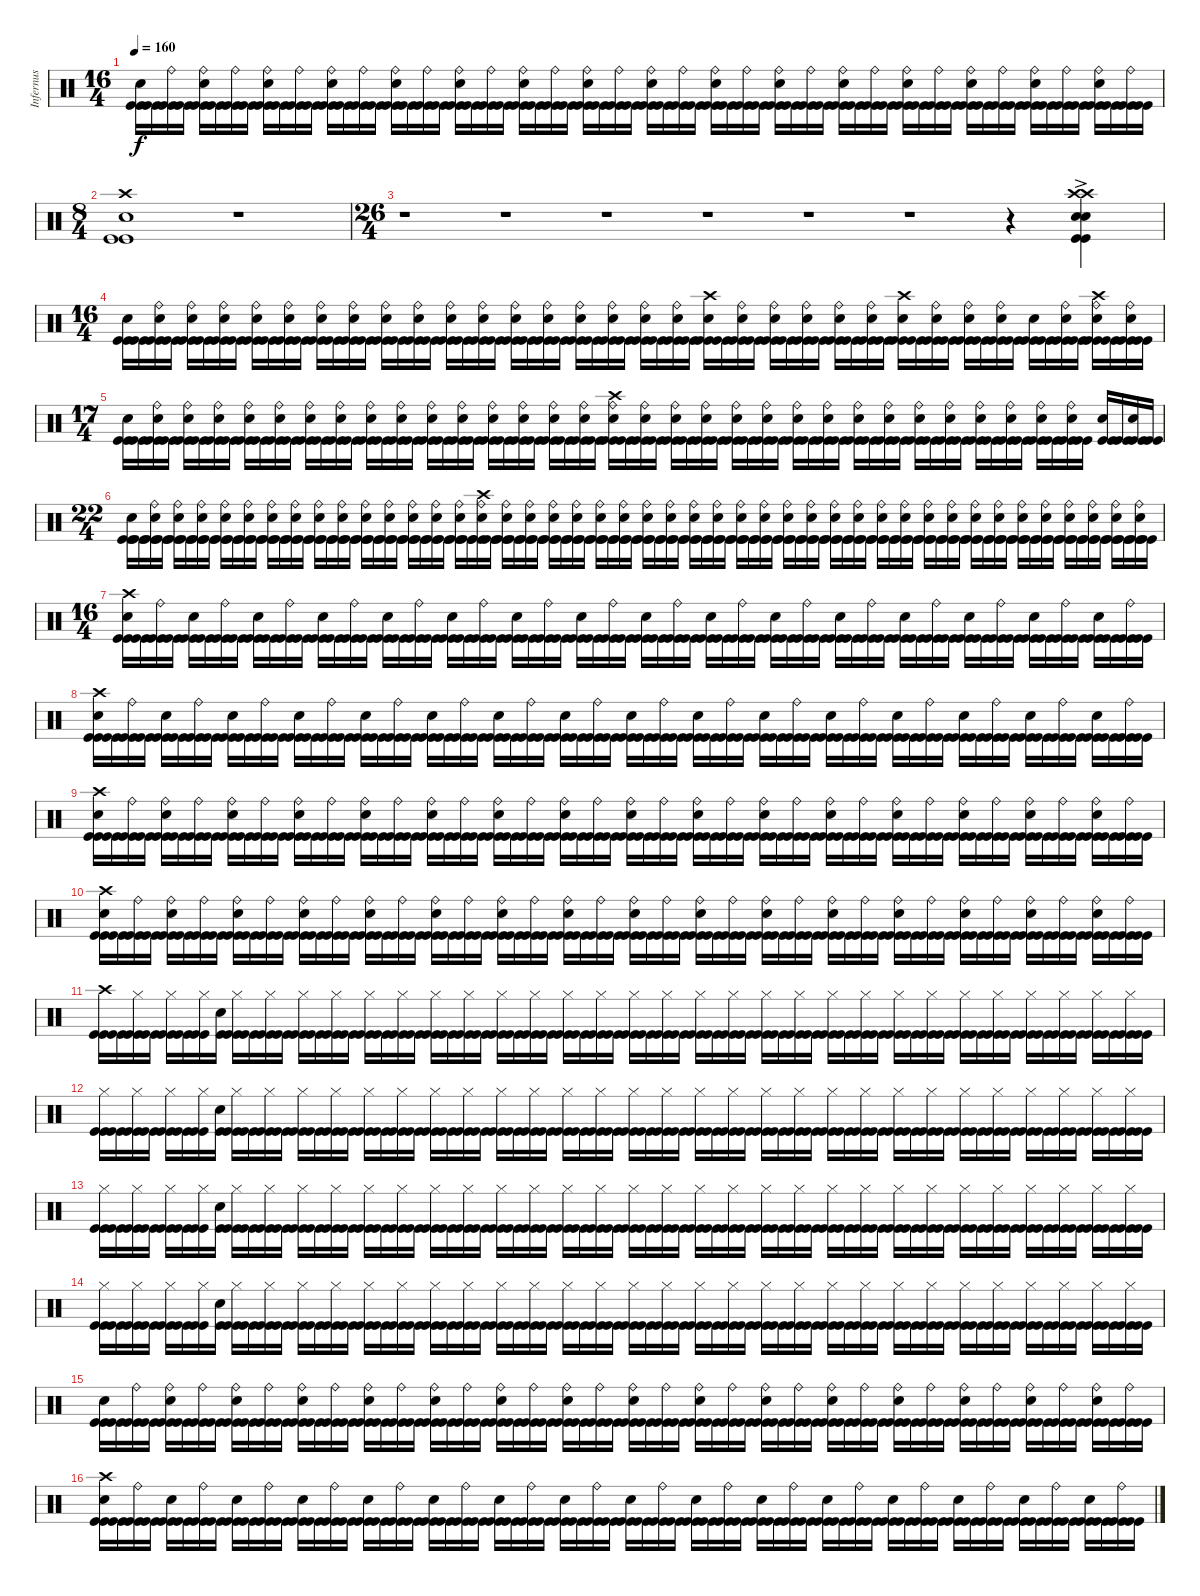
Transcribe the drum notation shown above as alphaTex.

\track ("Infernus" "Infernus") {instrument percussion}
\staff {score}
\articulation defaults
\ts (16 4)
\tempo 160
\clef neutral
\ks c
("Snare (hit) 2" "Kick (hit)" "Kick (hit)").16{dy f} ("Kick (hit)" "Kick (hit)").16 ("Ride (bell)" "Kick (hit)" "Kick (hit)").16 ("Kick (hit)" "Kick (hit)").16 ("Ride (bell)" "Snare (hit) 2" "Kick (hit)" "Kick (hit)").16 ("Kick (hit)" "Kick (hit)").16 ("Ride (bell)" "Kick (hit)" "Kick (hit)").16 ("Kick (hit)" "Kick (hit)").16 ("Ride (bell)" "Snare (hit) 2" "Kick (hit)" "Kick (hit)").16 ("Kick (hit)" "Kick (hit)").16 ("Ride (bell)" "Kick (hit)" "Kick (hit)").16 ("Kick (hit)" "Kick (hit)").16 ("Ride (bell)" "Snare (hit) 2" "Kick (hit)" "Kick (hit)").16 ("Kick (hit)" "Kick (hit)").16 ("Ride (bell)" "Kick (hit)" "Kick (hit)").16 ("Kick (hit)" "Kick (hit)").16 ("Ride (bell)" "Snare (hit) 2" "Kick (hit)" "Kick (hit)").16 ("Kick (hit)" "Kick (hit)").16 ("Ride (bell)" "Kick (hit)" "Kick (hit)").16 ("Kick (hit)" "Kick (hit)").16 ("Ride (bell)" "Snare (hit) 2" "Kick (hit)" "Kick (hit)").16 ("Kick (hit)" "Kick (hit)").16 ("Ride (bell)" "Kick (hit)" "Kick (hit)").16 ("Kick (hit)" "Kick (hit)").16 ("Ride (bell)" "Snare (hit) 2" "Kick (hit)" "Kick (hit)").16 ("Kick (hit)" "Kick (hit)").16 ("Ride (bell)" "Kick (hit)" "Kick (hit)").16 ("Kick (hit)" "Kick (hit)").16 ("Ride (bell)" "Snare (hit) 2" "Kick (hit)" "Kick (hit)").16 ("Kick (hit)" "Kick (hit)").16 ("Ride (bell)" "Kick (hit)" "Kick (hit)").16 ("Kick (hit)" "Kick (hit)").16 ("Ride (bell)" "Snare (hit) 2" "Kick (hit)" "Kick (hit)").16 ("Kick (hit)" "Kick (hit)").16 ("Ride (bell)" "Kick (hit)" "Kick (hit)").16 ("Kick (hit)" "Kick (hit)").16 ("Ride (bell)" "Snare (hit) 2" "Kick (hit)" "Kick (hit)").16 ("Kick (hit)" "Kick (hit)").16 ("Ride (bell)" "Kick (hit)" "Kick (hit)").16 ("Kick (hit)" "Kick (hit)").16 ("Ride (bell)" "Snare (hit) 2" "Kick (hit)" "Kick (hit)").16 ("Kick (hit)" "Kick (hit)").16 ("Ride (bell)" "Kick (hit)" "Kick (hit)").16 ("Kick (hit)" "Kick (hit)").16 ("Ride (bell)" "Snare (hit) 2" "Kick (hit)" "Kick (hit)").16 ("Kick (hit)" "Kick (hit)").16 ("Ride (bell)" "Kick (hit)" "Kick (hit)").16 ("Kick (hit)" "Kick (hit)").16 ("Ride (bell)" "Snare (hit) 2" "Kick (hit)" "Kick (hit)").16 ("Kick (hit)" "Kick (hit)").16 ("Ride (bell)" "Kick (hit)" "Kick (hit)").16 ("Kick (hit)" "Kick (hit)").16 ("Ride (bell)" "Snare (hit) 2" "Kick (hit)" "Kick (hit)").16 ("Kick (hit)" "Kick (hit)").16 ("Ride (bell)" "Kick (hit)" "Kick (hit)").16 ("Kick (hit)" "Kick (hit)").16 ("Ride (bell)" "Snare (hit) 2" "Kick (hit)" "Kick (hit)").16 ("Kick (hit)" "Kick (hit)").16 ("Ride (bell)" "Kick (hit)" "Kick (hit)").16 ("Kick (hit)" "Kick (hit)").16 ("Ride (bell)" "Snare (hit) 2" "Kick (hit)" "Kick (hit)").16 ("Kick (hit)" "Kick (hit)").16 ("Ride (bell)" "Kick (hit)" "Kick (hit)").16 ("Kick (hit)" "Kick (hit)").16 |
\ts (8 4)
("Crash high (hit)" "Snare (hit) 2" "Kick (hit)" "Kick (hit)").1 r.1 |
\ts (26 4)
r.1 r.1 r.1 r.1 r.1 r.1 r.4 ("Crash high (hit)"{ac} "Crash high (hit)"{ac} "Snare (hit) 2"{ac} "Snare (hit) 2" "Kick (hit)"{ac} "Kick (hit)"{ac}).4 |
\ts (16 4)
("Snare (hit) 2" "Kick (hit)" "Kick (hit)").16 ("Kick (hit)" "Kick (hit)").16 ("Ride (bell)" "Snare (hit) 2" "Kick (hit)" "Kick (hit)").16 ("Kick (hit)" "Kick (hit)").16 ("Ride (bell)" "Snare (hit) 2" "Kick (hit)" "Kick (hit)").16 ("Kick (hit)" "Kick (hit)").16 ("Ride (bell)" "Snare (hit) 2" "Kick (hit)" "Kick (hit)").16 ("Kick (hit)" "Kick (hit)").16 ("Ride (bell)" "Snare (hit) 2" "Kick (hit)" "Kick (hit)").16 ("Kick (hit)" "Kick (hit)").16 ("Ride (bell)" "Snare (hit) 2" "Kick (hit)" "Kick (hit)").16 ("Kick (hit)" "Kick (hit)").16 ("Ride (bell)" "Snare (hit) 2" "Kick (hit)" "Kick (hit)").16 ("Kick (hit)" "Kick (hit)").16 ("Ride (bell)" "Snare (hit) 2" "Kick (hit)" "Kick (hit)").16 ("Kick (hit)" "Kick (hit)").16 ("Ride (bell)" "Snare (hit) 2" "Kick (hit)" "Kick (hit)").16 ("Kick (hit)" "Kick (hit)").16 ("Ride (bell)" "Snare (hit) 2" "Kick (hit)" "Kick (hit)").16 ("Kick (hit)" "Kick (hit)").16 ("Ride (bell)" "Snare (hit) 2" "Kick (hit)" "Kick (hit)").16 ("Kick (hit)" "Kick (hit)").16 ("Ride (bell)" "Snare (hit) 2" "Kick (hit)" "Kick (hit)").16 ("Kick (hit)" "Kick (hit)").16 ("Ride (bell)" "Snare (hit) 2" "Kick (hit)" "Kick (hit)").16 ("Kick (hit)" "Kick (hit)").16 ("Ride (bell)" "Snare (hit) 2" "Kick (hit)" "Kick (hit)").16 ("Kick (hit)" "Kick (hit)").16 ("Ride (bell)" "Snare (hit) 2" "Kick (hit)" "Kick (hit)").16 ("Kick (hit)" "Kick (hit)").16 ("Ride (bell)" "Snare (hit) 2" "Kick (hit)" "Kick (hit)").16 ("Kick (hit)" "Kick (hit)").16 ("Ride (bell)" "Snare (hit) 2" "Kick (hit)" "Kick (hit)").16 ("Kick (hit)" "Kick (hit)").16 ("Ride (bell)" "Snare (hit) 2" "Kick (hit)" "Kick (hit)").16 ("Kick (hit)" "Kick (hit)").16 ("Crash high (hit)" "Snare (hit) 2" "Kick (hit)" "Kick (hit)").16 ("Kick (hit)" "Kick (hit)").16 ("Ride (bell)" "Snare (hit) 2" "Kick (hit)" "Kick (hit)").16 ("Kick (hit)" "Kick (hit)").16 ("Ride (bell)" "Snare (hit) 2" "Kick (hit)" "Kick (hit)").16 ("Kick (hit)" "Kick (hit)").16 ("Ride (bell)" "Snare (hit) 2" "Kick (hit)" "Kick (hit)").16 ("Kick (hit)" "Kick (hit)").16 ("Ride (bell)" "Snare (hit) 2" "Kick (hit)" "Kick (hit)").16 ("Kick (hit)" "Kick (hit)").16 ("Ride (bell)" "Snare (hit) 2" "Kick (hit)" "Kick (hit)").16 ("Kick (hit)" "Kick (hit)").16 ("Crash high (hit)" "Snare (hit) 2" "Kick (hit)" "Kick (hit)").16 ("Kick (hit)" "Kick (hit)").16 ("Ride (bell)" "Snare (hit) 2" "Kick (hit)" "Kick (hit)").16 ("Kick (hit)" "Kick (hit)").16 ("Ride (bell)" "Snare (hit) 2" "Kick (hit)" "Kick (hit)").16 ("Kick (hit)" "Kick (hit)").16 ("Ride (bell)" "Snare (hit) 2" "Kick (hit)" "Kick (hit)").16 ("Kick (hit)" "Kick (hit)").16 ("Snare (hit) 2" "Kick (hit)" "Kick (hit)").16 ("Kick (hit)" "Kick (hit)").16 ("Ride (bell)" "Snare (hit) 2" "Kick (hit)" "Kick (hit)").16 ("Kick (hit)" "Kick (hit)").16 ("Crash high (hit)" "Ride (bell)" "Snare (hit) 2" "Kick (hit)" "Kick (hit)").16 ("Kick (hit)" "Kick (hit)").16 ("Ride (bell)" "Snare (hit) 2" "Kick (hit)" "Kick (hit)").16 ("Kick (hit)" "Kick (hit)").16 |
\ts (17 4)
("Snare (hit) 2" "Kick (hit)" "Kick (hit)").16 ("Kick (hit)" "Kick (hit)").16 ("Ride (bell)" "Snare (hit) 2" "Kick (hit)" "Kick (hit)").16 ("Kick (hit)" "Kick (hit)").16 ("Ride (bell)" "Snare (hit) 2" "Kick (hit)" "Kick (hit)").16 ("Kick (hit)" "Kick (hit)").16 ("Ride (bell)" "Snare (hit) 2" "Kick (hit)" "Kick (hit)").16 ("Kick (hit)" "Kick (hit)").16 ("Ride (bell)" "Snare (hit) 2" "Kick (hit)" "Kick (hit)").16 ("Kick (hit)" "Kick (hit)").16 ("Ride (bell)" "Snare (hit) 2" "Kick (hit)" "Kick (hit)").16 ("Kick (hit)" "Kick (hit)").16 ("Ride (bell)" "Snare (hit) 2" "Kick (hit)" "Kick (hit)").16 ("Kick (hit)" "Kick (hit)").16 ("Ride (bell)" "Snare (hit) 2" "Kick (hit)" "Kick (hit)").16 ("Kick (hit)" "Kick (hit)").16 ("Ride (bell)" "Snare (hit) 2" "Kick (hit)" "Kick (hit)").16 ("Kick (hit)" "Kick (hit)").16 ("Ride (bell)" "Snare (hit) 2" "Kick (hit)" "Kick (hit)").16 ("Kick (hit)" "Kick (hit)").16 ("Ride (bell)" "Snare (hit) 2" "Kick (hit)" "Kick (hit)").16 ("Kick (hit)" "Kick (hit)").16 ("Ride (bell)" "Snare (hit) 2" "Kick (hit)" "Kick (hit)").16 ("Kick (hit)" "Kick (hit)").16 ("Ride (bell)" "Snare (hit) 2" "Kick (hit)" "Kick (hit)").16 ("Kick (hit)" "Kick (hit)").16 ("Ride (bell)" "Snare (hit) 2" "Kick (hit)" "Kick (hit)").16 ("Kick (hit)" "Kick (hit)").16 ("Ride (bell)" "Snare (hit) 2" "Kick (hit)" "Kick (hit)").16 ("Kick (hit)" "Kick (hit)").16 ("Ride (bell)" "Snare (hit) 2" "Kick (hit)" "Kick (hit)").16 ("Kick (hit)" "Kick (hit)").16 ("Crash high (hit)" "Ride (bell)" "Snare (hit) 2" "Kick (hit)" "Kick (hit)").16 ("Kick (hit)" "Kick (hit)").16 ("Ride (bell)" "Snare (hit) 2" "Kick (hit)" "Kick (hit)").16 ("Kick (hit)" "Kick (hit)").16 ("Ride (bell)" "Snare (hit) 2" "Kick (hit)" "Kick (hit)").16 ("Kick (hit)" "Kick (hit)").16 ("Ride (bell)" "Snare (hit) 2" "Kick (hit)" "Kick (hit)").16 ("Kick (hit)" "Kick (hit)").16 ("Ride (bell)" "Snare (hit) 2" "Kick (hit)" "Kick (hit)").16 ("Kick (hit)" "Kick (hit)").16 ("Ride (bell)" "Snare (hit) 2" "Kick (hit)" "Kick (hit)").16 ("Kick (hit)" "Kick (hit)").16 ("Ride (bell)" "Snare (hit) 2" "Kick (hit)" "Kick (hit)").16 ("Kick (hit)" "Kick (hit)").16 ("Ride (bell)" "Snare (hit) 2" "Kick (hit)" "Kick (hit)").16 ("Kick (hit)" "Kick (hit)").16 ("Ride (bell)" "Snare (hit) 2" "Kick (hit)" "Kick (hit)").16 ("Kick (hit)" "Kick (hit)").16 ("Ride (bell)" "Snare (hit) 2" "Kick (hit)" "Kick (hit)").16 ("Kick (hit)" "Kick (hit)").16 ("Ride (bell)" "Snare (hit) 2" "Kick (hit)" "Kick (hit)").16 ("Kick (hit)" "Kick (hit)").16 ("Ride (bell)" "Snare (hit) 2" "Kick (hit)" "Kick (hit)").16 ("Kick (hit)" "Kick (hit)").16 ("Ride (bell)" "Snare (hit) 2" "Kick (hit)" "Kick (hit)").16 ("Kick (hit)" "Kick (hit)").16 ("Ride (bell)" "Snare (hit) 2" "Kick (hit)" "Kick (hit)").16 ("Kick (hit)" "Kick (hit)").16 ("Ride (bell)" "Snare (hit) 2" "Kick (hit)" "Kick (hit)").16 ("Kick (hit)" "Kick (hit)").16 ("Ride (bell)" "Snare (hit) 2" "Kick (hit)" "Kick (hit)").16 ("Kick (hit)" "Kick (hit)").16 ("Snare (hit) 2" "Kick (hit)" "Kick (hit)").16 ("Kick (hit)" "Kick (hit)").16 ("Snare (hit) 2" "Kick (hit)" "Kick (hit)").16 ("Kick (hit)" "Kick (hit)").16 |
\ts (22 4)
("Snare (hit) 2" "Kick (hit)" "Kick (hit)").16 ("Kick (hit)" "Kick (hit)").16 ("Ride (bell)" "Snare (hit) 2" "Kick (hit)" "Kick (hit)").16 ("Kick (hit)" "Kick (hit)").16 ("Ride (bell)" "Snare (hit) 2" "Kick (hit)" "Kick (hit)").16 ("Kick (hit)" "Kick (hit)").16 ("Ride (bell)" "Snare (hit) 2" "Kick (hit)" "Kick (hit)").16 ("Kick (hit)" "Kick (hit)").16 ("Ride (bell)" "Snare (hit) 2" "Kick (hit)" "Kick (hit)").16 ("Kick (hit)" "Kick (hit)").16 ("Ride (bell)" "Snare (hit) 2" "Kick (hit)" "Kick (hit)").16 ("Kick (hit)" "Kick (hit)").16 ("Ride (bell)" "Snare (hit) 2" "Kick (hit)" "Kick (hit)").16 ("Kick (hit)" "Kick (hit)").16 ("Ride (bell)" "Snare (hit) 2" "Kick (hit)" "Kick (hit)").16 ("Kick (hit)" "Kick (hit)").16 ("Ride (bell)" "Snare (hit) 2" "Kick (hit)" "Kick (hit)").16 ("Kick (hit)" "Kick (hit)").16 ("Ride (bell)" "Snare (hit) 2" "Kick (hit)" "Kick (hit)").16 ("Kick (hit)" "Kick (hit)").16 ("Ride (bell)" "Snare (hit) 2" "Kick (hit)" "Kick (hit)").16 ("Kick (hit)" "Kick (hit)").16 ("Ride (bell)" "Snare (hit) 2" "Kick (hit)" "Kick (hit)").16 ("Kick (hit)" "Kick (hit)").16 ("Ride (bell)" "Snare (hit) 2" "Kick (hit)" "Kick (hit)").16 ("Kick (hit)" "Kick (hit)").16 ("Ride (bell)" "Snare (hit) 2" "Kick (hit)" "Kick (hit)").16 ("Kick (hit)" "Kick (hit)").16 ("Ride (bell)" "Snare (hit) 2" "Kick (hit)" "Kick (hit)").16 ("Kick (hit)" "Kick (hit)").16 ("Crash high (hit)" "Ride (bell)" "Snare (hit) 2" "Kick (hit)" "Kick (hit)").16 ("Kick (hit)" "Kick (hit)").16 ("Ride (bell)" "Snare (hit) 2" "Kick (hit)" "Kick (hit)").16 ("Kick (hit)" "Kick (hit)").16 ("Ride (bell)" "Snare (hit) 2" "Kick (hit)" "Kick (hit)").16 ("Kick (hit)" "Kick (hit)").16 ("Ride (bell)" "Snare (hit) 2" "Kick (hit)" "Kick (hit)").16 ("Kick (hit)" "Kick (hit)").16 ("Ride (bell)" "Snare (hit) 2" "Kick (hit)" "Kick (hit)").16 ("Kick (hit)" "Kick (hit)").16 ("Ride (bell)" "Snare (hit) 2" "Kick (hit)" "Kick (hit)").16 ("Kick (hit)" "Kick (hit)").16 ("Ride (bell)" "Snare (hit) 2" "Kick (hit)" "Kick (hit)").16 ("Kick (hit)" "Kick (hit)").16 ("Ride (bell)" "Snare (hit) 2" "Kick (hit)" "Kick (hit)").16 ("Kick (hit)" "Kick (hit)").16 ("Ride (bell)" "Snare (hit) 2" "Kick (hit)" "Kick (hit)").16 ("Kick (hit)" "Kick (hit)").16 ("Ride (bell)" "Snare (hit) 2" "Kick (hit)" "Kick (hit)").16 ("Kick (hit)" "Kick (hit)").16 ("Ride (bell)" "Snare (hit) 2" "Kick (hit)" "Kick (hit)").16 ("Kick (hit)" "Kick (hit)").16 ("Ride (bell)" "Snare (hit) 2" "Kick (hit)" "Kick (hit)").16 ("Kick (hit)" "Kick (hit)").16 ("Ride (bell)" "Snare (hit) 2" "Kick (hit)" "Kick (hit)").16 ("Kick (hit)" "Kick (hit)").16 ("Ride (bell)" "Snare (hit) 2" "Kick (hit)" "Kick (hit)").16 ("Kick (hit)" "Kick (hit)").16 ("Ride (bell)" "Snare (hit) 2" "Kick (hit)" "Kick (hit)").16 ("Kick (hit)" "Kick (hit)").16 ("Ride (bell)" "Snare (hit) 2" "Kick (hit)" "Kick (hit)").16 ("Kick (hit)" "Kick (hit)").16 ("Ride (bell)" "Snare (hit) 2" "Kick (hit)" "Kick (hit)").16 ("Kick (hit)" "Kick (hit)").16 ("Ride (bell)" "Snare (hit) 2" "Kick (hit)" "Kick (hit)").16 ("Kick (hit)" "Kick (hit)").16 ("Ride (bell)" "Snare (hit) 2" "Kick (hit)" "Kick (hit)").16 ("Kick (hit)" "Kick (hit)").16 ("Ride (bell)" "Snare (hit) 2" "Kick (hit)" "Kick (hit)").16 ("Kick (hit)" "Kick (hit)").16 ("Ride (bell)" "Snare (hit) 2" "Kick (hit)" "Kick (hit)").16 ("Kick (hit)" "Kick (hit)").16 ("Ride (bell)" "Snare (hit) 2" "Kick (hit)" "Kick (hit)").16 ("Kick (hit)" "Kick (hit)").16 ("Ride (bell)" "Snare (hit) 2" "Kick (hit)" "Kick (hit)").16 ("Kick (hit)" "Kick (hit)").16 ("Ride (bell)" "Snare (hit) 2" "Kick (hit)" "Kick (hit)").16 ("Kick (hit)" "Kick (hit)").16 ("Ride (bell)" "Snare (hit) 2" "Kick (hit)" "Kick (hit)").16 ("Kick (hit)" "Kick (hit)").16 ("Ride (bell)" "Snare (hit) 2" "Kick (hit)" "Kick (hit)").16 ("Kick (hit)" "Kick (hit)").16 ("Ride (bell)" "Snare (hit) 2" "Kick (hit)" "Kick (hit)").16 ("Kick (hit)" "Kick (hit)").16 ("Ride (bell)" "Snare (hit) 2" "Kick (hit)" "Kick (hit)").16 ("Kick (hit)" "Kick (hit)").16 ("Ride (bell)" "Snare (hit) 2" "Kick (hit)" "Kick (hit)").16 ("Kick (hit)" "Kick (hit)").16 |
\ts (16 4)
("Crash high (hit)" "Snare (hit) 2" "Kick (hit)" "Kick (hit)").16 ("Kick (hit)" "Kick (hit)").16 ("Ride (bell)" "Kick (hit)" "Kick (hit)").16 ("Kick (hit)" "Kick (hit)").16 ("Snare (hit) 2" "Kick (hit)" "Kick (hit)").16 ("Kick (hit)" "Kick (hit)").16 ("Ride (bell)" "Kick (hit)" "Kick (hit)").16 ("Kick (hit)" "Kick (hit)").16 ("Snare (hit) 2" "Kick (hit)" "Kick (hit)").16 ("Kick (hit)" "Kick (hit)").16 ("Ride (bell)" "Kick (hit)" "Kick (hit)").16 ("Kick (hit)" "Kick (hit)").16 ("Snare (hit) 2" "Kick (hit)" "Kick (hit)").16 ("Kick (hit)" "Kick (hit)").16 ("Ride (bell)" "Kick (hit)" "Kick (hit)").16 ("Kick (hit)" "Kick (hit)").16 ("Snare (hit) 2" "Kick (hit)" "Kick (hit)").16 ("Kick (hit)" "Kick (hit)").16 ("Ride (bell)" "Kick (hit)" "Kick (hit)").16 ("Kick (hit)" "Kick (hit)").16 ("Snare (hit) 2" "Kick (hit)" "Kick (hit)").16 ("Kick (hit)" "Kick (hit)").16 ("Ride (bell)" "Kick (hit)" "Kick (hit)").16 ("Kick (hit)" "Kick (hit)").16 ("Snare (hit) 2" "Kick (hit)" "Kick (hit)").16 ("Kick (hit)" "Kick (hit)").16 ("Ride (bell)" "Kick (hit)" "Kick (hit)").16 ("Kick (hit)" "Kick (hit)").16 ("Snare (hit) 2" "Kick (hit)" "Kick (hit)").16 ("Kick (hit)" "Kick (hit)").16 ("Ride (bell)" "Kick (hit)" "Kick (hit)").16 ("Kick (hit)" "Kick (hit)").16 ("Snare (hit) 2" "Kick (hit)" "Kick (hit)").16 ("Kick (hit)" "Kick (hit)").16 ("Ride (bell)" "Kick (hit)" "Kick (hit)").16 ("Kick (hit)" "Kick (hit)").16 ("Snare (hit) 2" "Kick (hit)" "Kick (hit)").16 ("Kick (hit)" "Kick (hit)").16 ("Ride (bell)" "Kick (hit)" "Kick (hit)").16 ("Kick (hit)" "Kick (hit)").16 ("Snare (hit) 2" "Kick (hit)" "Kick (hit)").16 ("Kick (hit)" "Kick (hit)").16 ("Ride (bell)" "Kick (hit)" "Kick (hit)").16 ("Kick (hit)" "Kick (hit)").16 ("Snare (hit) 2" "Kick (hit)" "Kick (hit)").16 ("Kick (hit)" "Kick (hit)").16 ("Ride (bell)" "Kick (hit)" "Kick (hit)").16 ("Kick (hit)" "Kick (hit)").16 ("Snare (hit) 2" "Kick (hit)" "Kick (hit)").16 ("Kick (hit)" "Kick (hit)").16 ("Ride (bell)" "Kick (hit)" "Kick (hit)").16 ("Kick (hit)" "Kick (hit)").16 ("Snare (hit) 2" "Kick (hit)" "Kick (hit)").16 ("Kick (hit)" "Kick (hit)").16 ("Ride (bell)" "Kick (hit)" "Kick (hit)").16 ("Kick (hit)" "Kick (hit)").16 ("Snare (hit) 2" "Kick (hit)" "Kick (hit)").16 ("Kick (hit)" "Kick (hit)").16 ("Ride (bell)" "Kick (hit)" "Kick (hit)").16 ("Kick (hit)" "Kick (hit)").16 ("Snare (hit) 2" "Kick (hit)" "Kick (hit)").16 ("Kick (hit)" "Kick (hit)").16 ("Ride (bell)" "Kick (hit)" "Kick (hit)").16 ("Kick (hit)" "Kick (hit)").16 |
("Crash high (hit)" "Snare (hit) 2" "Kick (hit)" "Kick (hit)").16 ("Kick (hit)" "Kick (hit)").16 ("Ride (bell)" "Kick (hit)" "Kick (hit)").16 ("Kick (hit)" "Kick (hit)").16 ("Snare (hit) 2" "Kick (hit)" "Kick (hit)").16 ("Kick (hit)" "Kick (hit)").16 ("Ride (bell)" "Kick (hit)" "Kick (hit)").16 ("Kick (hit)" "Kick (hit)").16 ("Snare (hit) 2" "Kick (hit)" "Kick (hit)").16 ("Kick (hit)" "Kick (hit)").16 ("Ride (bell)" "Kick (hit)" "Kick (hit)").16 ("Kick (hit)" "Kick (hit)").16 ("Snare (hit) 2" "Kick (hit)" "Kick (hit)").16 ("Kick (hit)" "Kick (hit)").16 ("Ride (bell)" "Kick (hit)" "Kick (hit)").16 ("Kick (hit)" "Kick (hit)").16 ("Snare (hit) 2" "Kick (hit)" "Kick (hit)").16 ("Kick (hit)" "Kick (hit)").16 ("Ride (bell)" "Kick (hit)" "Kick (hit)").16 ("Kick (hit)" "Kick (hit)").16 ("Snare (hit) 2" "Kick (hit)" "Kick (hit)").16 ("Kick (hit)" "Kick (hit)").16 ("Ride (bell)" "Kick (hit)" "Kick (hit)").16 ("Kick (hit)" "Kick (hit)").16 ("Snare (hit) 2" "Kick (hit)" "Kick (hit)").16 ("Kick (hit)" "Kick (hit)").16 ("Ride (bell)" "Kick (hit)" "Kick (hit)").16 ("Kick (hit)" "Kick (hit)").16 ("Snare (hit) 2" "Kick (hit)" "Kick (hit)").16 ("Kick (hit)" "Kick (hit)").16 ("Ride (bell)" "Kick (hit)" "Kick (hit)").16 ("Kick (hit)" "Kick (hit)").16 ("Snare (hit) 2" "Kick (hit)" "Kick (hit)").16 ("Kick (hit)" "Kick (hit)").16 ("Ride (bell)" "Kick (hit)" "Kick (hit)").16 ("Kick (hit)" "Kick (hit)").16 ("Snare (hit) 2" "Kick (hit)" "Kick (hit)").16 ("Kick (hit)" "Kick (hit)").16 ("Ride (bell)" "Kick (hit)" "Kick (hit)").16 ("Kick (hit)" "Kick (hit)").16 ("Snare (hit) 2" "Kick (hit)" "Kick (hit)").16 ("Kick (hit)" "Kick (hit)").16 ("Ride (bell)" "Kick (hit)" "Kick (hit)").16 ("Kick (hit)" "Kick (hit)").16 ("Snare (hit) 2" "Kick (hit)" "Kick (hit)").16 ("Kick (hit)" "Kick (hit)").16 ("Ride (bell)" "Kick (hit)" "Kick (hit)").16 ("Kick (hit)" "Kick (hit)").16 ("Snare (hit) 2" "Kick (hit)" "Kick (hit)").16 ("Kick (hit)" "Kick (hit)").16 ("Ride (bell)" "Kick (hit)" "Kick (hit)").16 ("Kick (hit)" "Kick (hit)").16 ("Snare (hit) 2" "Kick (hit)" "Kick (hit)").16 ("Kick (hit)" "Kick (hit)").16 ("Ride (bell)" "Kick (hit)" "Kick (hit)").16 ("Kick (hit)" "Kick (hit)").16 ("Snare (hit) 2" "Kick (hit)" "Kick (hit)").16 ("Kick (hit)" "Kick (hit)").16 ("Ride (bell)" "Kick (hit)" "Kick (hit)").16 ("Kick (hit)" "Kick (hit)").16 ("Snare (hit) 2" "Kick (hit)" "Kick (hit)").16 ("Kick (hit)" "Kick (hit)").16 ("Ride (bell)" "Kick (hit)" "Kick (hit)").16 ("Kick (hit)" "Kick (hit)").16 |
("Crash high (hit)" "Snare (hit) 2" "Kick (hit)" "Kick (hit)").16 ("Kick (hit)" "Kick (hit)").16 ("Ride (bell)" "Kick (hit)" "Kick (hit)").16 ("Kick (hit)" "Kick (hit)").16 ("Ride (bell)" "Snare (hit) 2" "Kick (hit)" "Kick (hit)").16 ("Kick (hit)" "Kick (hit)").16 ("Ride (bell)" "Kick (hit)" "Kick (hit)").16 ("Kick (hit)" "Kick (hit)").16 ("Ride (bell)" "Snare (hit) 2" "Kick (hit)" "Kick (hit)").16 ("Kick (hit)" "Kick (hit)").16 ("Ride (bell)" "Kick (hit)" "Kick (hit)").16 ("Kick (hit)" "Kick (hit)").16 ("Ride (bell)" "Snare (hit) 2" "Kick (hit)" "Kick (hit)").16 ("Kick (hit)" "Kick (hit)").16 ("Ride (bell)" "Kick (hit)" "Kick (hit)").16 ("Kick (hit)" "Kick (hit)").16 ("Ride (bell)" "Snare (hit) 2" "Kick (hit)" "Kick (hit)").16 ("Kick (hit)" "Kick (hit)").16 ("Ride (bell)" "Kick (hit)" "Kick (hit)").16 ("Kick (hit)" "Kick (hit)").16 ("Ride (bell)" "Snare (hit) 2" "Kick (hit)" "Kick (hit)").16 ("Kick (hit)" "Kick (hit)").16 ("Ride (bell)" "Kick (hit)" "Kick (hit)").16 ("Kick (hit)" "Kick (hit)").16 ("Ride (bell)" "Snare (hit) 2" "Kick (hit)" "Kick (hit)").16 ("Kick (hit)" "Kick (hit)").16 ("Ride (bell)" "Kick (hit)" "Kick (hit)").16 ("Kick (hit)" "Kick (hit)").16 ("Ride (bell)" "Snare (hit) 2" "Kick (hit)" "Kick (hit)").16 ("Kick (hit)" "Kick (hit)").16 ("Ride (bell)" "Kick (hit)" "Kick (hit)").16 ("Kick (hit)" "Kick (hit)").16 ("Ride (bell)" "Snare (hit) 2" "Kick (hit)" "Kick (hit)").16 ("Kick (hit)" "Kick (hit)").16 ("Ride (bell)" "Kick (hit)" "Kick (hit)").16 ("Kick (hit)" "Kick (hit)").16 ("Ride (bell)" "Snare (hit) 2" "Kick (hit)" "Kick (hit)").16 ("Kick (hit)" "Kick (hit)").16 ("Ride (bell)" "Kick (hit)" "Kick (hit)").16 ("Kick (hit)" "Kick (hit)").16 ("Ride (bell)" "Snare (hit) 2" "Kick (hit)" "Kick (hit)").16 ("Kick (hit)" "Kick (hit)").16 ("Ride (bell)" "Kick (hit)" "Kick (hit)").16 ("Kick (hit)" "Kick (hit)").16 ("Ride (bell)" "Snare (hit) 2" "Kick (hit)" "Kick (hit)").16 ("Kick (hit)" "Kick (hit)").16 ("Ride (bell)" "Kick (hit)" "Kick (hit)").16 ("Kick (hit)" "Kick (hit)").16 ("Ride (bell)" "Snare (hit) 2" "Kick (hit)" "Kick (hit)").16 ("Kick (hit)" "Kick (hit)").16 ("Ride (bell)" "Kick (hit)" "Kick (hit)").16 ("Kick (hit)" "Kick (hit)").16 ("Ride (bell)" "Snare (hit) 2" "Kick (hit)" "Kick (hit)").16 ("Kick (hit)" "Kick (hit)").16 ("Ride (bell)" "Kick (hit)" "Kick (hit)").16 ("Kick (hit)" "Kick (hit)").16 ("Ride (bell)" "Snare (hit) 2" "Kick (hit)" "Kick (hit)").16 ("Kick (hit)" "Kick (hit)").16 ("Ride (bell)" "Kick (hit)" "Kick (hit)").16 ("Kick (hit)" "Kick (hit)").16 ("Ride (bell)" "Snare (hit) 2" "Kick (hit)" "Kick (hit)").16 ("Kick (hit)" "Kick (hit)").16 ("Ride (bell)" "Kick (hit)" "Kick (hit)").16 ("Kick (hit)" "Kick (hit)").16 |
("Crash high (hit)" "Snare (hit) 2" "Kick (hit)" "Kick (hit)").16 ("Kick (hit)" "Kick (hit)").16 ("Ride (bell)" "Kick (hit)" "Kick (hit)").16 ("Kick (hit)" "Kick (hit)").16 ("Ride (bell)" "Snare (hit) 2" "Kick (hit)" "Kick (hit)").16 ("Kick (hit)" "Kick (hit)").16 ("Ride (bell)" "Kick (hit)" "Kick (hit)").16 ("Kick (hit)" "Kick (hit)").16 ("Ride (bell)" "Snare (hit) 2" "Kick (hit)" "Kick (hit)").16 ("Kick (hit)" "Kick (hit)").16 ("Ride (bell)" "Kick (hit)" "Kick (hit)").16 ("Kick (hit)" "Kick (hit)").16 ("Ride (bell)" "Snare (hit) 2" "Kick (hit)" "Kick (hit)").16 ("Kick (hit)" "Kick (hit)").16 ("Ride (bell)" "Kick (hit)" "Kick (hit)").16 ("Kick (hit)" "Kick (hit)").16 ("Ride (bell)" "Snare (hit) 2" "Kick (hit)" "Kick (hit)").16 ("Kick (hit)" "Kick (hit)").16 ("Ride (bell)" "Kick (hit)" "Kick (hit)").16 ("Kick (hit)" "Kick (hit)").16 ("Ride (bell)" "Snare (hit) 2" "Kick (hit)" "Kick (hit)").16 ("Kick (hit)" "Kick (hit)").16 ("Ride (bell)" "Kick (hit)" "Kick (hit)").16 ("Kick (hit)" "Kick (hit)").16 ("Ride (bell)" "Snare (hit) 2" "Kick (hit)" "Kick (hit)").16 ("Kick (hit)" "Kick (hit)").16 ("Ride (bell)" "Kick (hit)" "Kick (hit)").16 ("Kick (hit)" "Kick (hit)").16 ("Ride (bell)" "Snare (hit) 2" "Kick (hit)" "Kick (hit)").16 ("Kick (hit)" "Kick (hit)").16 ("Ride (bell)" "Kick (hit)" "Kick (hit)").16 ("Kick (hit)" "Kick (hit)").16 ("Ride (bell)" "Snare (hit) 2" "Kick (hit)" "Kick (hit)").16 ("Kick (hit)" "Kick (hit)").16 ("Ride (bell)" "Kick (hit)" "Kick (hit)").16 ("Kick (hit)" "Kick (hit)").16 ("Ride (bell)" "Snare (hit) 2" "Kick (hit)" "Kick (hit)").16 ("Kick (hit)" "Kick (hit)").16 ("Ride (bell)" "Kick (hit)" "Kick (hit)").16 ("Kick (hit)" "Kick (hit)").16 ("Ride (bell)" "Snare (hit) 2" "Kick (hit)" "Kick (hit)").16 ("Kick (hit)" "Kick (hit)").16 ("Ride (bell)" "Kick (hit)" "Kick (hit)").16 ("Kick (hit)" "Kick (hit)").16 ("Ride (bell)" "Snare (hit) 2" "Kick (hit)" "Kick (hit)").16 ("Kick (hit)" "Kick (hit)").16 ("Ride (bell)" "Kick (hit)" "Kick (hit)").16 ("Kick (hit)" "Kick (hit)").16 ("Ride (bell)" "Snare (hit) 2" "Kick (hit)" "Kick (hit)").16 ("Kick (hit)" "Kick (hit)").16 ("Ride (bell)" "Kick (hit)" "Kick (hit)").16 ("Kick (hit)" "Kick (hit)").16 ("Ride (bell)" "Snare (hit) 2" "Kick (hit)" "Kick (hit)").16 ("Kick (hit)" "Kick (hit)").16 ("Ride (bell)" "Kick (hit)" "Kick (hit)").16 ("Kick (hit)" "Kick (hit)").16 ("Ride (bell)" "Snare (hit) 2" "Kick (hit)" "Kick (hit)").16 ("Kick (hit)" "Kick (hit)").16 ("Ride (bell)" "Kick (hit)" "Kick (hit)").16 ("Kick (hit)" "Kick (hit)").16 ("Ride (bell)" "Snare (hit) 2" "Kick (hit)" "Kick (hit)").16 ("Kick (hit)" "Kick (hit)").16 ("Ride (bell)" "Kick (hit)" "Kick (hit)").16 ("Kick (hit)" "Kick (hit)").16 |
("Crash high (hit)" "Kick (hit)" "Kick (hit)").16 ("Kick (hit)" "Kick (hit)").16 ("Hi-Hat (closed)" "Kick (hit)" "Kick (hit)").16 ("Kick (hit)" "Kick (hit)").16 ("Hi-Hat (closed)" "Kick (hit)" "Kick (hit)").16 ("Kick (hit)" "Kick (hit)").16 ("Hi-Hat (closed)" "Kick (hit)" "Kick (hit)").16 ("Snare (hit)" "Kick (hit)").16 ("Hi-Hat (closed)" "Kick (hit)" "Kick (hit)").16 ("Kick (hit)" "Kick (hit)").16 ("Hi-Hat (closed)" "Kick (hit)" "Kick (hit)").16 ("Kick (hit)" "Kick (hit)").16 ("Hi-Hat (closed)" "Kick (hit)" "Kick (hit)").16 ("Kick (hit)" "Kick (hit)").16 ("Hi-Hat (closed)" "Kick (hit)" "Kick (hit)").16 ("Kick (hit)" "Kick (hit)").16 ("Hi-Hat (closed)" "Kick (hit)" "Kick (hit)").16 ("Kick (hit)" "Kick (hit)").16 ("Hi-Hat (closed)" "Kick (hit)" "Kick (hit)").16 ("Kick (hit)" "Kick (hit)").16 ("Hi-Hat (closed)" "Kick (hit)" "Kick (hit)").16 ("Kick (hit)" "Kick (hit)").16 ("Hi-Hat (closed)" "Kick (hit)" "Kick (hit)").16 ("Kick (hit)" "Kick (hit)").16 ("Hi-Hat (closed)" "Kick (hit)" "Kick (hit)").16 ("Kick (hit)" "Kick (hit)").16 ("Hi-Hat (closed)" "Kick (hit)" "Kick (hit)").16 ("Kick (hit)" "Kick (hit)").16 ("Hi-Hat (closed)" "Kick (hit)" "Kick (hit)").16 ("Kick (hit)" "Kick (hit)").16 ("Hi-Hat (closed)" "Kick (hit)" "Kick (hit)").16 ("Kick (hit)" "Kick (hit)").16 ("Hi-Hat (closed)" "Kick (hit)" "Kick (hit)").16 ("Kick (hit)" "Kick (hit)").16 ("Hi-Hat (closed)" "Kick (hit)" "Kick (hit)").16 ("Kick (hit)" "Kick (hit)").16 ("Hi-Hat (closed)" "Kick (hit)" "Kick (hit)").16 ("Kick (hit)" "Kick (hit)").16 ("Hi-Hat (closed)" "Kick (hit)" "Kick (hit)").16 ("Kick (hit)" "Kick (hit)").16 ("Hi-Hat (closed)" "Kick (hit)" "Kick (hit)").16 ("Kick (hit)" "Kick (hit)").16 ("Hi-Hat (closed)" "Kick (hit)" "Kick (hit)").16 ("Kick (hit)" "Kick (hit)").16 ("Hi-Hat (closed)" "Kick (hit)" "Kick (hit)").16 ("Kick (hit)" "Kick (hit)").16 ("Hi-Hat (closed)" "Kick (hit)" "Kick (hit)").16 ("Kick (hit)" "Kick (hit)").16 ("Hi-Hat (closed)" "Kick (hit)" "Kick (hit)").16 ("Kick (hit)" "Kick (hit)").16 ("Hi-Hat (closed)" "Kick (hit)" "Kick (hit)").16 ("Kick (hit)" "Kick (hit)").16 ("Hi-Hat (closed)" "Kick (hit)" "Kick (hit)").16 ("Kick (hit)" "Kick (hit)").16 ("Hi-Hat (closed)" "Kick (hit)" "Kick (hit)").16 ("Kick (hit)" "Kick (hit)").16 ("Hi-Hat (closed)" "Kick (hit)" "Kick (hit)").16 ("Kick (hit)" "Kick (hit)").16 ("Hi-Hat (closed)" "Kick (hit)" "Kick (hit)").16 ("Kick (hit)" "Kick (hit)").16 ("Hi-Hat (closed)" "Kick (hit)" "Kick (hit)").16 ("Kick (hit)" "Kick (hit)").16 ("Hi-Hat (closed)" "Kick (hit)" "Kick (hit)").16 ("Kick (hit)" "Kick (hit)").16 |
("Hi-Hat (closed)" "Kick (hit)" "Kick (hit)").16 ("Kick (hit)" "Kick (hit)").16 ("Hi-Hat (closed)" "Kick (hit)" "Kick (hit)").16 ("Kick (hit)" "Kick (hit)").16 ("Hi-Hat (closed)" "Kick (hit)" "Kick (hit)").16 ("Kick (hit)" "Kick (hit)").16 ("Hi-Hat (closed)" "Kick (hit)" "Kick (hit)").16 ("Snare (hit)" "Kick (hit)").16 ("Hi-Hat (closed)" "Kick (hit)" "Kick (hit)").16 ("Kick (hit)" "Kick (hit)").16 ("Hi-Hat (closed)" "Kick (hit)" "Kick (hit)").16 ("Kick (hit)" "Kick (hit)").16 ("Hi-Hat (closed)" "Kick (hit)" "Kick (hit)").16 ("Kick (hit)" "Kick (hit)").16 ("Hi-Hat (closed)" "Kick (hit)" "Kick (hit)").16 ("Kick (hit)" "Kick (hit)").16 ("Hi-Hat (closed)" "Kick (hit)" "Kick (hit)").16 ("Kick (hit)" "Kick (hit)").16 ("Hi-Hat (closed)" "Kick (hit)" "Kick (hit)").16 ("Kick (hit)" "Kick (hit)").16 ("Hi-Hat (closed)" "Kick (hit)" "Kick (hit)").16 ("Kick (hit)" "Kick (hit)").16 ("Hi-Hat (closed)" "Kick (hit)" "Kick (hit)").16 ("Kick (hit)" "Kick (hit)").16 ("Hi-Hat (closed)" "Kick (hit)" "Kick (hit)").16 ("Kick (hit)" "Kick (hit)").16 ("Hi-Hat (closed)" "Kick (hit)" "Kick (hit)").16 ("Kick (hit)" "Kick (hit)").16 ("Hi-Hat (closed)" "Kick (hit)" "Kick (hit)").16 ("Kick (hit)" "Kick (hit)").16 ("Hi-Hat (closed)" "Kick (hit)" "Kick (hit)").16 ("Kick (hit)" "Kick (hit)").16 ("Hi-Hat (closed)" "Kick (hit)" "Kick (hit)").16 ("Kick (hit)" "Kick (hit)").16 ("Hi-Hat (closed)" "Kick (hit)" "Kick (hit)").16 ("Kick (hit)" "Kick (hit)").16 ("Hi-Hat (closed)" "Kick (hit)" "Kick (hit)").16 ("Kick (hit)" "Kick (hit)").16 ("Hi-Hat (closed)" "Kick (hit)" "Kick (hit)").16 ("Kick (hit)" "Kick (hit)").16 ("Hi-Hat (closed)" "Kick (hit)" "Kick (hit)").16 ("Kick (hit)" "Kick (hit)").16 ("Hi-Hat (closed)" "Kick (hit)" "Kick (hit)").16 ("Kick (hit)" "Kick (hit)").16 ("Hi-Hat (closed)" "Kick (hit)" "Kick (hit)").16 ("Kick (hit)" "Kick (hit)").16 ("Hi-Hat (closed)" "Kick (hit)" "Kick (hit)").16 ("Kick (hit)" "Kick (hit)").16 ("Hi-Hat (closed)" "Kick (hit)" "Kick (hit)").16 ("Kick (hit)" "Kick (hit)").16 ("Hi-Hat (closed)" "Kick (hit)" "Kick (hit)").16 ("Kick (hit)" "Kick (hit)").16 ("Hi-Hat (closed)" "Kick (hit)" "Kick (hit)").16 ("Kick (hit)" "Kick (hit)").16 ("Hi-Hat (closed)" "Kick (hit)" "Kick (hit)").16 ("Kick (hit)" "Kick (hit)").16 ("Hi-Hat (closed)" "Kick (hit)" "Kick (hit)").16 ("Kick (hit)" "Kick (hit)").16 ("Hi-Hat (closed)" "Kick (hit)" "Kick (hit)").16 ("Kick (hit)" "Kick (hit)").16 ("Hi-Hat (closed)" "Kick (hit)" "Kick (hit)").16 ("Kick (hit)" "Kick (hit)").16 ("Hi-Hat (closed)" "Kick (hit)" "Kick (hit)").16 ("Kick (hit)" "Kick (hit)").16 |
("Hi-Hat (closed)" "Kick (hit)" "Kick (hit)").16 ("Kick (hit)" "Kick (hit)").16 ("Hi-Hat (closed)" "Kick (hit)" "Kick (hit)").16 ("Kick (hit)" "Kick (hit)").16 ("Hi-Hat (closed)" "Kick (hit)" "Kick (hit)").16 ("Kick (hit)" "Kick (hit)").16 ("Hi-Hat (closed)" "Kick (hit)" "Kick (hit)").16 ("Snare (hit)" "Kick (hit)").16 ("Hi-Hat (closed)" "Kick (hit)" "Kick (hit)").16 ("Kick (hit)" "Kick (hit)").16 ("Hi-Hat (closed)" "Kick (hit)" "Kick (hit)").16 ("Kick (hit)" "Kick (hit)").16 ("Hi-Hat (closed)" "Kick (hit)" "Kick (hit)").16 ("Kick (hit)" "Kick (hit)").16 ("Hi-Hat (closed)" "Kick (hit)" "Kick (hit)").16 ("Kick (hit)" "Kick (hit)").16 ("Hi-Hat (closed)" "Kick (hit)" "Kick (hit)").16 ("Kick (hit)" "Kick (hit)").16 ("Hi-Hat (closed)" "Kick (hit)" "Kick (hit)").16 ("Kick (hit)" "Kick (hit)").16 ("Hi-Hat (closed)" "Kick (hit)" "Kick (hit)").16 ("Kick (hit)" "Kick (hit)").16 ("Hi-Hat (closed)" "Kick (hit)" "Kick (hit)").16 ("Kick (hit)" "Kick (hit)").16 ("Hi-Hat (closed)" "Kick (hit)" "Kick (hit)").16 ("Kick (hit)" "Kick (hit)").16 ("Hi-Hat (closed)" "Kick (hit)" "Kick (hit)").16 ("Kick (hit)" "Kick (hit)").16 ("Hi-Hat (closed)" "Kick (hit)" "Kick (hit)").16 ("Kick (hit)" "Kick (hit)").16 ("Hi-Hat (closed)" "Kick (hit)" "Kick (hit)").16 ("Kick (hit)" "Kick (hit)").16 ("Hi-Hat (closed)" "Kick (hit)" "Kick (hit)").16 ("Kick (hit)" "Kick (hit)").16 ("Hi-Hat (closed)" "Kick (hit)" "Kick (hit)").16 ("Kick (hit)" "Kick (hit)").16 ("Hi-Hat (closed)" "Kick (hit)" "Kick (hit)").16 ("Kick (hit)" "Kick (hit)").16 ("Hi-Hat (closed)" "Kick (hit)" "Kick (hit)").16 ("Kick (hit)" "Kick (hit)").16 ("Hi-Hat (closed)" "Kick (hit)" "Kick (hit)").16 ("Kick (hit)" "Kick (hit)").16 ("Hi-Hat (closed)" "Kick (hit)" "Kick (hit)").16 ("Kick (hit)" "Kick (hit)").16 ("Hi-Hat (closed)" "Kick (hit)" "Kick (hit)").16 ("Kick (hit)" "Kick (hit)").16 ("Hi-Hat (closed)" "Kick (hit)" "Kick (hit)").16 ("Kick (hit)" "Kick (hit)").16 ("Hi-Hat (closed)" "Kick (hit)" "Kick (hit)").16 ("Kick (hit)" "Kick (hit)").16 ("Hi-Hat (closed)" "Kick (hit)" "Kick (hit)").16 ("Kick (hit)" "Kick (hit)").16 ("Hi-Hat (closed)" "Kick (hit)" "Kick (hit)").16 ("Kick (hit)" "Kick (hit)").16 ("Hi-Hat (closed)" "Kick (hit)" "Kick (hit)").16 ("Kick (hit)" "Kick (hit)").16 ("Hi-Hat (closed)" "Kick (hit)" "Kick (hit)").16 ("Kick (hit)" "Kick (hit)").16 ("Hi-Hat (closed)" "Kick (hit)" "Kick (hit)").16 ("Kick (hit)" "Kick (hit)").16 ("Hi-Hat (closed)" "Kick (hit)" "Kick (hit)").16 ("Kick (hit)" "Kick (hit)").16 ("Hi-Hat (closed)" "Kick (hit)" "Kick (hit)").16 ("Kick (hit)" "Kick (hit)").16 |
("Hi-Hat (closed)" "Kick (hit)" "Kick (hit)").16 ("Kick (hit)" "Kick (hit)").16 ("Hi-Hat (closed)" "Kick (hit)" "Kick (hit)").16 ("Kick (hit)" "Kick (hit)").16 ("Hi-Hat (closed)" "Kick (hit)" "Kick (hit)").16 ("Kick (hit)" "Kick (hit)").16 ("Hi-Hat (closed)" "Kick (hit)" "Kick (hit)").16 ("Snare (hit)" "Kick (hit)").16 ("Hi-Hat (closed)" "Kick (hit)" "Kick (hit)").16 ("Kick (hit)" "Kick (hit)").16 ("Hi-Hat (closed)" "Kick (hit)" "Kick (hit)").16 ("Kick (hit)" "Kick (hit)").16 ("Hi-Hat (closed)" "Kick (hit)" "Kick (hit)").16 ("Kick (hit)" "Kick (hit)").16 ("Hi-Hat (closed)" "Kick (hit)" "Kick (hit)").16 ("Kick (hit)" "Kick (hit)").16 ("Hi-Hat (closed)" "Kick (hit)" "Kick (hit)").16 ("Kick (hit)" "Kick (hit)").16 ("Hi-Hat (closed)" "Kick (hit)" "Kick (hit)").16 ("Kick (hit)" "Kick (hit)").16 ("Hi-Hat (closed)" "Kick (hit)" "Kick (hit)").16 ("Kick (hit)" "Kick (hit)").16 ("Hi-Hat (closed)" "Kick (hit)" "Kick (hit)").16 ("Kick (hit)" "Kick (hit)").16 ("Hi-Hat (closed)" "Kick (hit)" "Kick (hit)").16 ("Kick (hit)" "Kick (hit)").16 ("Hi-Hat (closed)" "Kick (hit)" "Kick (hit)").16 ("Kick (hit)" "Kick (hit)").16 ("Hi-Hat (closed)" "Kick (hit)" "Kick (hit)").16 ("Kick (hit)" "Kick (hit)").16 ("Hi-Hat (closed)" "Kick (hit)" "Kick (hit)").16 ("Kick (hit)" "Kick (hit)").16 ("Hi-Hat (closed)" "Kick (hit)" "Kick (hit)").16 ("Kick (hit)" "Kick (hit)").16 ("Hi-Hat (closed)" "Kick (hit)" "Kick (hit)").16 ("Kick (hit)" "Kick (hit)").16 ("Hi-Hat (closed)" "Kick (hit)" "Kick (hit)").16 ("Kick (hit)" "Kick (hit)").16 ("Hi-Hat (closed)" "Kick (hit)" "Kick (hit)").16 ("Kick (hit)" "Kick (hit)").16 ("Hi-Hat (closed)" "Kick (hit)" "Kick (hit)").16 ("Kick (hit)" "Kick (hit)").16 ("Hi-Hat (closed)" "Kick (hit)" "Kick (hit)").16 ("Kick (hit)" "Kick (hit)").16 ("Hi-Hat (closed)" "Kick (hit)" "Kick (hit)").16 ("Kick (hit)" "Kick (hit)").16 ("Hi-Hat (closed)" "Kick (hit)" "Kick (hit)").16 ("Kick (hit)" "Kick (hit)").16 ("Hi-Hat (closed)" "Kick (hit)" "Kick (hit)").16 ("Kick (hit)" "Kick (hit)").16 ("Hi-Hat (closed)" "Kick (hit)" "Kick (hit)").16 ("Kick (hit)" "Kick (hit)").16 ("Hi-Hat (closed)" "Kick (hit)" "Kick (hit)").16 ("Kick (hit)" "Kick (hit)").16 ("Hi-Hat (closed)" "Kick (hit)" "Kick (hit)").16 ("Kick (hit)" "Kick (hit)").16 ("Hi-Hat (closed)" "Kick (hit)" "Kick (hit)").16 ("Kick (hit)" "Kick (hit)").16 ("Hi-Hat (closed)" "Kick (hit)" "Kick (hit)").16 ("Kick (hit)" "Kick (hit)").16 ("Hi-Hat (closed)" "Kick (hit)" "Kick (hit)").16 ("Kick (hit)" "Kick (hit)").16 ("Hi-Hat (closed)" "Kick (hit)" "Kick (hit)").16 ("Kick (hit)" "Kick (hit)").16 |
("Snare (hit) 2" "Kick (hit)" "Kick (hit)").16 ("Kick (hit)" "Kick (hit)").16 ("Ride (bell)" "Kick (hit)" "Kick (hit)").16 ("Kick (hit)" "Kick (hit)").16 ("Ride (bell)" "Snare (hit) 2" "Kick (hit)" "Kick (hit)").16 ("Kick (hit)" "Kick (hit)").16 ("Ride (bell)" "Kick (hit)" "Kick (hit)").16 ("Kick (hit)" "Kick (hit)").16 ("Ride (bell)" "Snare (hit) 2" "Kick (hit)" "Kick (hit)").16 ("Kick (hit)" "Kick (hit)").16 ("Ride (bell)" "Kick (hit)" "Kick (hit)").16 ("Kick (hit)" "Kick (hit)").16 ("Ride (bell)" "Snare (hit) 2" "Kick (hit)" "Kick (hit)").16 ("Kick (hit)" "Kick (hit)").16 ("Ride (bell)" "Kick (hit)" "Kick (hit)").16 ("Kick (hit)" "Kick (hit)").16 ("Ride (bell)" "Snare (hit) 2" "Kick (hit)" "Kick (hit)").16 ("Kick (hit)" "Kick (hit)").16 ("Ride (bell)" "Kick (hit)" "Kick (hit)").16 ("Kick (hit)" "Kick (hit)").16 ("Ride (bell)" "Snare (hit) 2" "Kick (hit)" "Kick (hit)").16 ("Kick (hit)" "Kick (hit)").16 ("Ride (bell)" "Kick (hit)" "Kick (hit)").16 ("Kick (hit)" "Kick (hit)").16 ("Ride (bell)" "Snare (hit) 2" "Kick (hit)" "Kick (hit)").16 ("Kick (hit)" "Kick (hit)").16 ("Ride (bell)" "Kick (hit)" "Kick (hit)").16 ("Kick (hit)" "Kick (hit)").16 ("Ride (bell)" "Snare (hit) 2" "Kick (hit)" "Kick (hit)").16 ("Kick (hit)" "Kick (hit)").16 ("Ride (bell)" "Kick (hit)" "Kick (hit)").16 ("Kick (hit)" "Kick (hit)").16 ("Ride (bell)" "Snare (hit) 2" "Kick (hit)" "Kick (hit)").16 ("Kick (hit)" "Kick (hit)").16 ("Ride (bell)" "Kick (hit)" "Kick (hit)").16 ("Kick (hit)" "Kick (hit)").16 ("Ride (bell)" "Snare (hit) 2" "Kick (hit)" "Kick (hit)").16 ("Kick (hit)" "Kick (hit)").16 ("Ride (bell)" "Kick (hit)" "Kick (hit)").16 ("Kick (hit)" "Kick (hit)").16 ("Ride (bell)" "Snare (hit) 2" "Kick (hit)" "Kick (hit)").16 ("Kick (hit)" "Kick (hit)").16 ("Ride (bell)" "Kick (hit)" "Kick (hit)").16 ("Kick (hit)" "Kick (hit)").16 ("Ride (bell)" "Snare (hit) 2" "Kick (hit)" "Kick (hit)").16 ("Kick (hit)" "Kick (hit)").16 ("Ride (bell)" "Kick (hit)" "Kick (hit)").16 ("Kick (hit)" "Kick (hit)").16 ("Ride (bell)" "Snare (hit) 2" "Kick (hit)" "Kick (hit)").16 ("Kick (hit)" "Kick (hit)").16 ("Ride (bell)" "Kick (hit)" "Kick (hit)").16 ("Kick (hit)" "Kick (hit)").16 ("Ride (bell)" "Snare (hit) 2" "Kick (hit)" "Kick (hit)").16 ("Kick (hit)" "Kick (hit)").16 ("Ride (bell)" "Kick (hit)" "Kick (hit)").16 ("Kick (hit)" "Kick (hit)").16 ("Ride (bell)" "Snare (hit) 2" "Kick (hit)" "Kick (hit)").16 ("Kick (hit)" "Kick (hit)").16 ("Ride (bell)" "Kick (hit)" "Kick (hit)").16 ("Kick (hit)" "Kick (hit)").16 ("Ride (bell)" "Snare (hit) 2" "Kick (hit)" "Kick (hit)").16 ("Kick (hit)" "Kick (hit)").16 ("Ride (bell)" "Kick (hit)" "Kick (hit)").16 ("Kick (hit)" "Kick (hit)").16 |
("Crash high (hit)" "Snare (hit) 2" "Kick (hit)" "Kick (hit)").16 ("Kick (hit)" "Kick (hit)").16 ("Ride (bell)" "Kick (hit)" "Kick (hit)").16 ("Kick (hit)" "Kick (hit)").16 ("Snare (hit) 2" "Kick (hit)" "Kick (hit)").16 ("Kick (hit)" "Kick (hit)").16 ("Ride (bell)" "Kick (hit)" "Kick (hit)").16 ("Kick (hit)" "Kick (hit)").16 ("Snare (hit) 2" "Kick (hit)" "Kick (hit)").16 ("Kick (hit)" "Kick (hit)").16 ("Ride (bell)" "Kick (hit)" "Kick (hit)").16 ("Kick (hit)" "Kick (hit)").16 ("Snare (hit) 2" "Kick (hit)" "Kick (hit)").16 ("Kick (hit)" "Kick (hit)").16 ("Ride (bell)" "Kick (hit)" "Kick (hit)").16 ("Kick (hit)" "Kick (hit)").16 ("Snare (hit) 2" "Kick (hit)" "Kick (hit)").16 ("Kick (hit)" "Kick (hit)").16 ("Ride (bell)" "Kick (hit)" "Kick (hit)").16 ("Kick (hit)" "Kick (hit)").16 ("Snare (hit) 2" "Kick (hit)" "Kick (hit)").16 ("Kick (hit)" "Kick (hit)").16 ("Ride (bell)" "Kick (hit)" "Kick (hit)").16 ("Kick (hit)" "Kick (hit)").16 ("Snare (hit) 2" "Kick (hit)" "Kick (hit)").16 ("Kick (hit)" "Kick (hit)").16 ("Ride (bell)" "Kick (hit)" "Kick (hit)").16 ("Kick (hit)" "Kick (hit)").16 ("Snare (hit) 2" "Kick (hit)" "Kick (hit)").16 ("Kick (hit)" "Kick (hit)").16 ("Ride (bell)" "Kick (hit)" "Kick (hit)").16 ("Kick (hit)" "Kick (hit)").16 ("Snare (hit) 2" "Kick (hit)" "Kick (hit)").16 ("Kick (hit)" "Kick (hit)").16 ("Ride (bell)" "Kick (hit)" "Kick (hit)").16 ("Kick (hit)" "Kick (hit)").16 ("Snare (hit) 2" "Kick (hit)" "Kick (hit)").16 ("Kick (hit)" "Kick (hit)").16 ("Ride (bell)" "Kick (hit)" "Kick (hit)").16 ("Kick (hit)" "Kick (hit)").16 ("Snare (hit) 2" "Kick (hit)" "Kick (hit)").16 ("Kick (hit)" "Kick (hit)").16 ("Ride (bell)" "Kick (hit)" "Kick (hit)").16 ("Kick (hit)" "Kick (hit)").16 ("Snare (hit) 2" "Kick (hit)" "Kick (hit)").16 ("Kick (hit)" "Kick (hit)").16 ("Ride (bell)" "Kick (hit)" "Kick (hit)").16 ("Kick (hit)" "Kick (hit)").16 ("Snare (hit) 2" "Kick (hit)" "Kick (hit)").16 ("Kick (hit)" "Kick (hit)").16 ("Ride (bell)" "Kick (hit)" "Kick (hit)").16 ("Kick (hit)" "Kick (hit)").16 ("Snare (hit) 2" "Kick (hit)" "Kick (hit)").16 ("Kick (hit)" "Kick (hit)").16 ("Ride (bell)" "Kick (hit)" "Kick (hit)").16 ("Kick (hit)" "Kick (hit)").16 ("Snare (hit) 2" "Kick (hit)" "Kick (hit)").16 ("Kick (hit)" "Kick (hit)").16 ("Ride (bell)" "Kick (hit)" "Kick (hit)").16 ("Kick (hit)" "Kick (hit)").16 ("Snare (hit) 2" "Kick (hit)" "Kick (hit)").16 ("Kick (hit)" "Kick (hit)").16 ("Ride (bell)" "Kick (hit)" "Kick (hit)").16 ("Kick (hit)" "Kick (hit)").16
